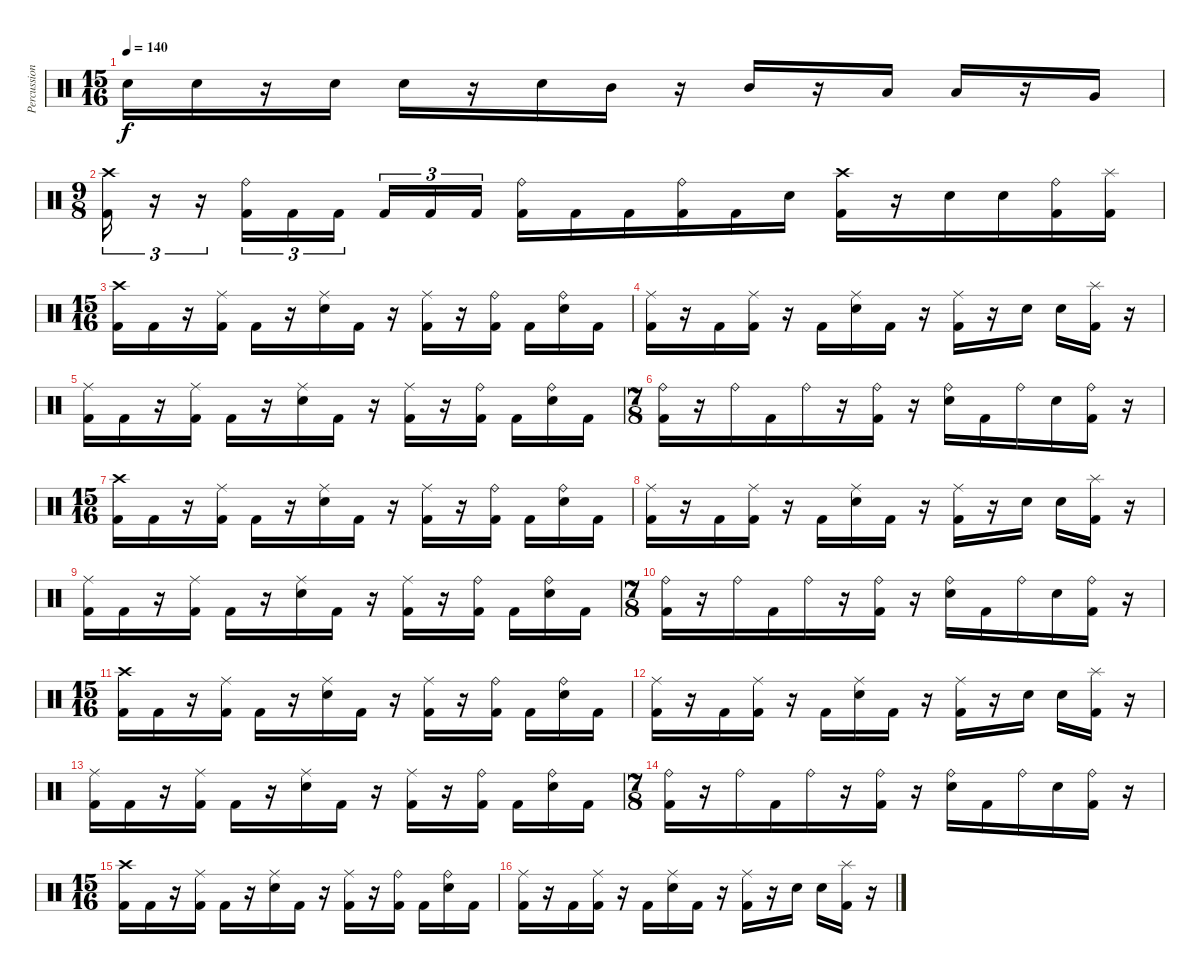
\track ("Percussion" "Percussion") {instrument percussion}
\staff {score}
\articulation defaults
\ts (15 16)
\tempo 140
\clef neutral
\ks c "Electric Snare (hit)".16{dy f} "Electric Snare (hit)".16
r.16 "Electric Snare (hit)".16 "Electric Snare (hit)".16 r.16 "Electric Snare (hit)".16 "Mid Tom (hit)".16 r.16 "Mid Tom (hit)".16 r.16 "Low Tom (hit)".16 "Low Tom (hit)".16 r.16 "Very Low Tom (hit)".16 |
\ts (9 8)
("Crash high (hit)" "Kick (hit) 2").16{tu (3 2)} r.16{tu (3 2)} r.16{tu (3 2)} ("Ride (bell)" "Kick (hit) 2").16{tu (3 2)} "Kick (hit) 2".16{tu (3 2)} "Kick (hit) 2".16{tu (3 2) beam splitsecondary} "Kick (hit) 2".16{tu (3 2)} "Kick (hit) 2".16{tu (3 2)} "Kick (hit) 2".16{tu (3 2)} ("Ride (bell)" "Kick (hit) 2").16 "Kick (hit) 2".16 "Kick (hit) 2".16 ("Ride (bell)" "Kick (hit) 2").16 "Kick (hit) 2".16 "Electric Snare (hit)".16 ("Crash high (hit)" "Kick (hit) 2").16 r.16 "Electric Snare (hit)".16 "Electric Snare (hit)".16 ("Ride (bell)" "Kick (hit) 2").16 ("Splash (hit)" "Kick (hit) 2").16 |
\ts (15 16)
("Crash high (hit)" "Kick (hit) 2").16 "Kick (hit) 2".16 r.16 ("Ride (middle)" "Kick (hit) 2").16 "Kick (hit) 2".16 r.16 ("Ride (middle)" "Electric Snare (hit)").16 "Kick (hit) 2".16 r.16 ("Ride (middle)" "Kick (hit) 2").16 r.16 ("Ride (bell)" "Kick (hit) 2").16 "Kick (hit) 2".16 ("Ride (bell)" "Electric Snare (hit)").16 "Kick (hit) 2".16 |
("Ride (middle)" "Kick (hit) 2").16 r.16 "Kick (hit) 2".16 ("Ride (middle)" "Kick (hit) 2").16 r.16 "Kick (hit) 2".16 ("Ride (middle)" "Electric Snare (hit)").16 "Kick (hit) 2".16 r.16 ("Ride (middle)" "Kick (hit) 2").16 r.16 "Electric Snare (hit)".16 "Electric Snare (hit)".16 ("Splash (hit)" "Kick (hit) 2").16 r.16 |
("Ride (middle)" "Kick (hit) 2").16 "Kick (hit) 2".16 r.16 ("Ride (middle)" "Kick (hit) 2").16 "Kick (hit) 2".16 r.16 ("Ride (middle)" "Electric Snare (hit)").16 "Kick (hit) 2".16 r.16 ("Ride (middle)" "Kick (hit) 2").16 r.16 ("Ride (bell)" "Kick (hit) 2").16 "Kick (hit) 2".16 ("Ride (bell)" "Electric Snare (hit)").16 "Kick (hit) 2".16 |
\ts (7 8)
("Ride (bell)" "Kick (hit) 2").16 r.16 "Ride (bell)".16 "Kick (hit) 2".16 "Ride (bell)".16 r.16 ("Ride (bell)" "Kick (hit) 2").16 r.16 ("Ride (bell)" "Electric Snare (hit)").16 "Kick (hit) 2".16 "Ride (bell)".16 "Electric Snare (hit)".16 ("Ride (bell)" "Kick (hit) 2").16 r.16 |
\ts (15 16)
("Crash high (hit)" "Kick (hit) 2").16 "Kick (hit) 2".16 r.16 ("Ride (middle)" "Kick (hit) 2").16 "Kick (hit) 2".16 r.16 ("Ride (middle)" "Electric Snare (hit)").16 "Kick (hit) 2".16 r.16 ("Ride (middle)" "Kick (hit) 2").16 r.16 ("Ride (bell)" "Kick (hit) 2").16 "Kick (hit) 2".16 ("Ride (bell)" "Electric Snare (hit)").16 "Kick (hit) 2".16 |
("Ride (middle)" "Kick (hit) 2").16 r.16 "Kick (hit) 2".16 ("Ride (middle)" "Kick (hit) 2").16 r.16 "Kick (hit) 2".16 ("Ride (middle)" "Electric Snare (hit)").16 "Kick (hit) 2".16 r.16 ("Ride (middle)" "Kick (hit) 2").16 r.16 "Electric Snare (hit)".16 "Electric Snare (hit)".16 ("Splash (hit)" "Kick (hit) 2").16 r.16 |
("Ride (middle)" "Kick (hit) 2").16 "Kick (hit) 2".16 r.16 ("Ride (middle)" "Kick (hit) 2").16 "Kick (hit) 2".16 r.16 ("Ride (middle)" "Electric Snare (hit)").16 "Kick (hit) 2".16 r.16 ("Ride (middle)" "Kick (hit) 2").16 r.16 ("Ride (bell)" "Kick (hit) 2").16 "Kick (hit) 2".16 ("Ride (bell)" "Electric Snare (hit)").16 "Kick (hit) 2".16 |
\ts (7 8)
("Ride (bell)" "Kick (hit) 2").16 r.16 "Ride (bell)".16 "Kick (hit) 2".16 "Ride (bell)".16 r.16 ("Ride (bell)" "Kick (hit) 2").16 r.16 ("Ride (bell)" "Electric Snare (hit)").16 "Kick (hit) 2".16 "Ride (bell)".16 "Electric Snare (hit)".16 ("Ride (bell)" "Kick (hit) 2").16 r.16 |
\ts (15 16)
("Crash high (hit)" "Kick (hit) 2").16 "Kick (hit) 2".16 r.16 ("Ride (middle)" "Kick (hit) 2").16 "Kick (hit) 2".16 r.16 ("Ride (middle)" "Electric Snare (hit)").16 "Kick (hit) 2".16 r.16 ("Ride (middle)" "Kick (hit) 2").16 r.16 ("Ride (bell)" "Kick (hit) 2").16 "Kick (hit) 2".16 ("Ride (bell)" "Electric Snare (hit)").16 "Kick (hit) 2".16 |
("Ride (middle)" "Kick (hit) 2").16 r.16 "Kick (hit) 2".16 ("Ride (middle)" "Kick (hit) 2").16 r.16 "Kick (hit) 2".16 ("Ride (middle)" "Electric Snare (hit)").16 "Kick (hit) 2".16 r.16 ("Ride (middle)" "Kick (hit) 2").16 r.16 "Electric Snare (hit)".16 "Electric Snare (hit)".16 ("Splash (hit)" "Kick (hit) 2").16 r.16 |
("Ride (middle)" "Kick (hit) 2").16 "Kick (hit) 2".16 r.16 ("Ride (middle)" "Kick (hit) 2").16 "Kick (hit) 2".16 r.16 ("Ride (middle)" "Electric Snare (hit)").16 "Kick (hit) 2".16 r.16 ("Ride (middle)" "Kick (hit) 2").16 r.16 ("Ride (bell)" "Kick (hit) 2").16 "Kick (hit) 2".16 ("Ride (bell)" "Electric Snare (hit)").16 "Kick (hit) 2".16 |
\ts (7 8)
("Ride (bell)" "Kick (hit) 2").16 r.16 "Ride (bell)".16 "Kick (hit) 2".16 "Ride (bell)".16 r.16 ("Ride (bell)" "Kick (hit) 2").16 r.16 ("Ride (bell)" "Electric Snare (hit)").16 "Kick (hit) 2".16 "Ride (bell)".16 "Electric Snare (hit)".16 ("Ride (bell)" "Kick (hit) 2").16 r.16 |
\ts (15 16)
("Crash high (hit)" "Kick (hit) 2").16 "Kick (hit) 2".16 r.16 ("Ride (middle)" "Kick (hit) 2").16 "Kick (hit) 2".16 r.16 ("Ride (middle)" "Electric Snare (hit)").16 "Kick (hit) 2".16 r.16 ("Ride (middle)" "Kick (hit) 2").16 r.16 ("Ride (bell)" "Kick (hit) 2").16 "Kick (hit) 2".16 ("Ride (bell)" "Electric Snare (hit)").16 "Kick (hit) 2".16 |
("Ride (middle)" "Kick (hit) 2").16 r.16 "Kick (hit) 2".16 ("Ride (middle)" "Kick (hit) 2").16 r.16 "Kick (hit) 2".16 ("Ride (middle)" "Electric Snare (hit)").16 "Kick (hit) 2".16 r.16 ("Ride (middle)" "Kick (hit) 2").16 r.16 "Electric Snare (hit)".16 "Electric Snare (hit)".16 ("Splash (hit)" "Kick (hit) 2").16 r.16
